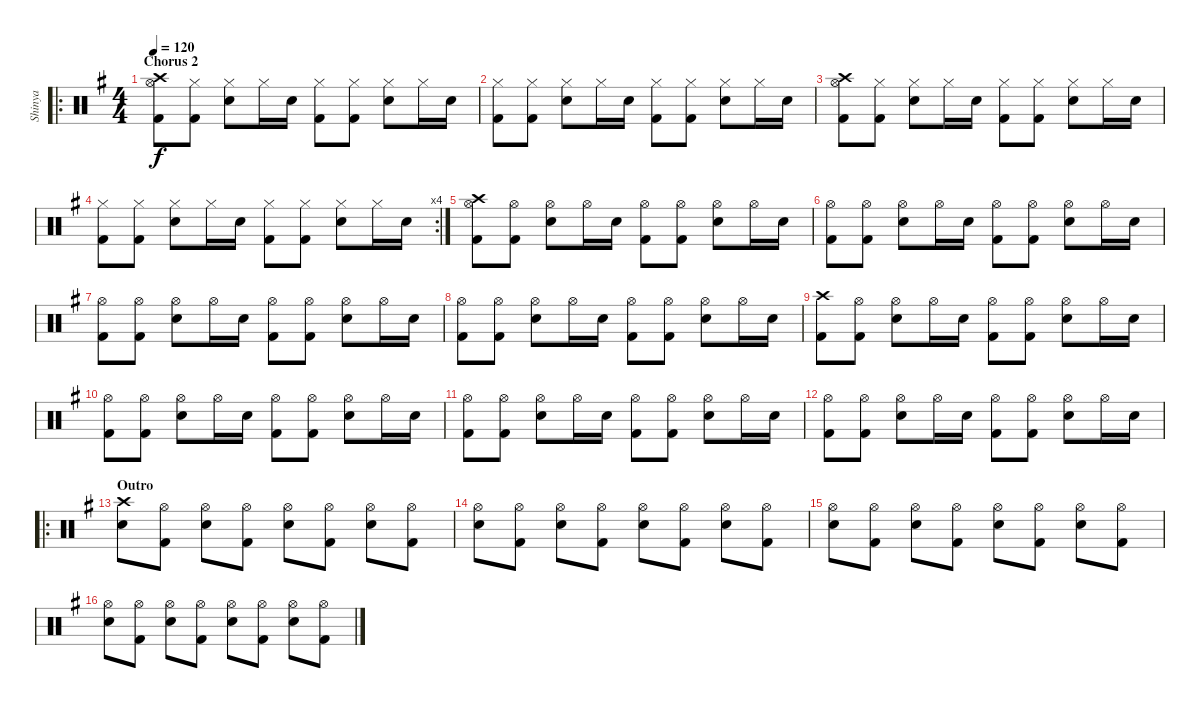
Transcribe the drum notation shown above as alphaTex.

\track ("Shinya" "Shinya") {instrument percussion}
\staff {score}
\articulation defaults
\ro
\ts (4 4)
\section ("" "Chorus 2")
\tempo 120
\clef neutral
\ks g
("Crash high (hit)" "Hi-Hat (open)" "Kick (hit) 2").8{dy f} ("Hi-Hat (closed)" "Kick (hit) 2").8 ("Hi-Hat (closed)" "Snare (hit) 2").8 "Hi-Hat (closed)".16 "Snare (hit) 2".16 ("Hi-Hat (closed)" "Kick (hit) 2").8 ("Hi-Hat (closed)" "Kick (hit) 2").8 ("Hi-Hat (closed)" "Snare (hit) 2").8 "Hi-Hat (closed)".16 "Snare (hit) 2".16 |
("Hi-Hat (closed)" "Kick (hit) 2").8 ("Hi-Hat (closed)" "Kick (hit) 2").8 ("Hi-Hat (closed)" "Snare (hit) 2").8 "Hi-Hat (closed)".16 "Snare (hit) 2".16 ("Hi-Hat (closed)" "Kick (hit) 2").8 ("Hi-Hat (closed)" "Kick (hit) 2").8 ("Hi-Hat (closed)" "Snare (hit) 2").8 "Hi-Hat (closed)".16 "Snare (hit) 2".16 |
("Crash high (hit)" "Hi-Hat (open)" "Kick (hit) 2").8 ("Hi-Hat (closed)" "Kick (hit) 2").8 ("Hi-Hat (closed)" "Snare (hit) 2").8 "Hi-Hat (closed)".16 "Snare (hit) 2".16 ("Hi-Hat (closed)" "Kick (hit) 2").8 ("Hi-Hat (closed)" "Kick (hit) 2").8 ("Hi-Hat (closed)" "Snare (hit) 2").8 "Hi-Hat (closed)".16 "Snare (hit) 2".16 |
\rc 4
("Hi-Hat (closed)" "Kick (hit) 2").8 ("Hi-Hat (closed)" "Kick (hit) 2").8 ("Hi-Hat (closed)" "Snare (hit) 2").8 "Hi-Hat (closed)".16 "Snare (hit) 2".16 ("Hi-Hat (closed)" "Kick (hit) 2").8 ("Hi-Hat (closed)" "Kick (hit) 2").8 ("Hi-Hat (closed)" "Snare (hit) 2").8 "Hi-Hat (closed)".16 "Snare (hit) 2".16 |
("Crash high (hit)" "Hi-Hat (open)" "Kick (hit) 2").8 ("Hi-Hat (open)" "Kick (hit) 2").8 ("Hi-Hat (open)" "Snare (hit) 2").8 "Hi-Hat (open)".16 "Snare (hit) 2".16 ("Hi-Hat (open)" "Kick (hit) 2").8 ("Hi-Hat (open)" "Kick (hit) 2").8 ("Hi-Hat (open)" "Snare (hit) 2").8 "Hi-Hat (open)".16 "Snare (hit) 2".16 |
("Hi-Hat (open)" "Kick (hit) 2").8 ("Hi-Hat (open)" "Kick (hit) 2").8 ("Hi-Hat (open)" "Snare (hit) 2").8 "Hi-Hat (open)".16 "Snare (hit) 2".16 ("Hi-Hat (open)" "Kick (hit) 2").8 ("Hi-Hat (open)" "Kick (hit) 2").8 ("Hi-Hat (open)" "Snare (hit) 2").8 "Hi-Hat (open)".16 "Snare (hit) 2".16 |
("Hi-Hat (open)" "Kick (hit) 2").8 ("Hi-Hat (open)" "Kick (hit) 2").8 ("Hi-Hat (open)" "Snare (hit) 2").8 "Hi-Hat (open)".16 "Snare (hit) 2".16 ("Hi-Hat (open)" "Kick (hit) 2").8 ("Hi-Hat (open)" "Kick (hit) 2").8 ("Hi-Hat (open)" "Snare (hit) 2").8 "Hi-Hat (open)".16 "Snare (hit) 2".16 |
("Hi-Hat (open)" "Kick (hit) 2").8 ("Hi-Hat (open)" "Kick (hit) 2").8 ("Hi-Hat (open)" "Snare (hit) 2").8 "Hi-Hat (open)".16 "Snare (hit) 2".16 ("Hi-Hat (open)" "Kick (hit) 2").8 ("Hi-Hat (open)" "Kick (hit) 2").8 ("Hi-Hat (open)" "Snare (hit) 2").8 "Hi-Hat (open)".16 "Snare (hit) 2".16 |
("Crash high (hit)" "Kick (hit) 2").8 ("Hi-Hat (open)" "Kick (hit) 2").8 ("Hi-Hat (open)" "Snare (hit) 2").8 "Hi-Hat (open)".16 "Snare (hit) 2".16 ("Hi-Hat (open)" "Kick (hit) 2").8 ("Hi-Hat (open)" "Kick (hit) 2").8 ("Hi-Hat (open)" "Snare (hit) 2").8 "Hi-Hat (open)".16 "Snare (hit) 2".16 |
("Hi-Hat (open)" "Kick (hit) 2").8 ("Hi-Hat (open)" "Kick (hit) 2").8 ("Hi-Hat (open)" "Snare (hit) 2").8 "Hi-Hat (open)".16 "Snare (hit) 2".16 ("Hi-Hat (open)" "Kick (hit) 2").8 ("Hi-Hat (open)" "Kick (hit) 2").8 ("Hi-Hat (open)" "Snare (hit) 2").8 "Hi-Hat (open)".16 "Snare (hit) 2".16 |
("Hi-Hat (open)" "Kick (hit) 2").8 ("Hi-Hat (open)" "Kick (hit) 2").8 ("Hi-Hat (open)" "Snare (hit) 2").8 "Hi-Hat (open)".16 "Snare (hit) 2".16 ("Hi-Hat (open)" "Kick (hit) 2").8 ("Hi-Hat (open)" "Kick (hit) 2").8 ("Hi-Hat (open)" "Snare (hit) 2").8 "Hi-Hat (open)".16 "Snare (hit) 2".16 |
("Hi-Hat (open)" "Kick (hit) 2").8 ("Hi-Hat (open)" "Kick (hit) 2").8 ("Hi-Hat (open)" "Snare (hit) 2").8 "Hi-Hat (open)".16 "Snare (hit) 2".16 ("Hi-Hat (open)" "Kick (hit) 2").8 ("Hi-Hat (open)" "Kick (hit) 2").8 ("Hi-Hat (open)" "Snare (hit) 2").8 "Hi-Hat (open)".16 "Snare (hit) 2".16 |
\ro
\section ("" "Outro")
("Crash high (hit)" "Snare (hit) 2").8 ("Hi-Hat (open)" "Kick (hit) 2").8 ("Hi-Hat (open)" "Snare (hit) 2").8 ("Hi-Hat (open)" "Kick (hit) 2").8 ("Hi-Hat (open)" "Snare (hit) 2").8 ("Hi-Hat (open)" "Kick (hit) 2").8 ("Hi-Hat (open)" "Snare (hit) 2").8 ("Hi-Hat (open)" "Kick (hit) 2").8 |
("Hi-Hat (open)" "Snare (hit) 2").8 ("Hi-Hat (open)" "Kick (hit) 2").8 ("Hi-Hat (open)" "Snare (hit) 2").8 ("Hi-Hat (open)" "Kick (hit) 2").8 ("Hi-Hat (open)" "Snare (hit) 2").8 ("Hi-Hat (open)" "Kick (hit) 2").8 ("Hi-Hat (open)" "Snare (hit) 2").8 ("Hi-Hat (open)" "Kick (hit) 2").8 |
("Hi-Hat (open)" "Snare (hit) 2").8 ("Hi-Hat (open)" "Kick (hit) 2").8 ("Hi-Hat (open)" "Snare (hit) 2").8 ("Hi-Hat (open)" "Kick (hit) 2").8 ("Hi-Hat (open)" "Snare (hit) 2").8 ("Hi-Hat (open)" "Kick (hit) 2").8 ("Hi-Hat (open)" "Snare (hit) 2").8 ("Hi-Hat (open)" "Kick (hit) 2").8 |
("Hi-Hat (open)" "Snare (hit) 2").8 ("Hi-Hat (open)" "Kick (hit) 2").8 ("Hi-Hat (open)" "Snare (hit) 2").8 ("Hi-Hat (open)" "Kick (hit) 2").8 ("Hi-Hat (open)" "Snare (hit) 2").8 ("Hi-Hat (open)" "Kick (hit) 2").8 ("Hi-Hat (open)" "Snare (hit) 2").8 ("Hi-Hat (open)" "Kick (hit) 2").8
